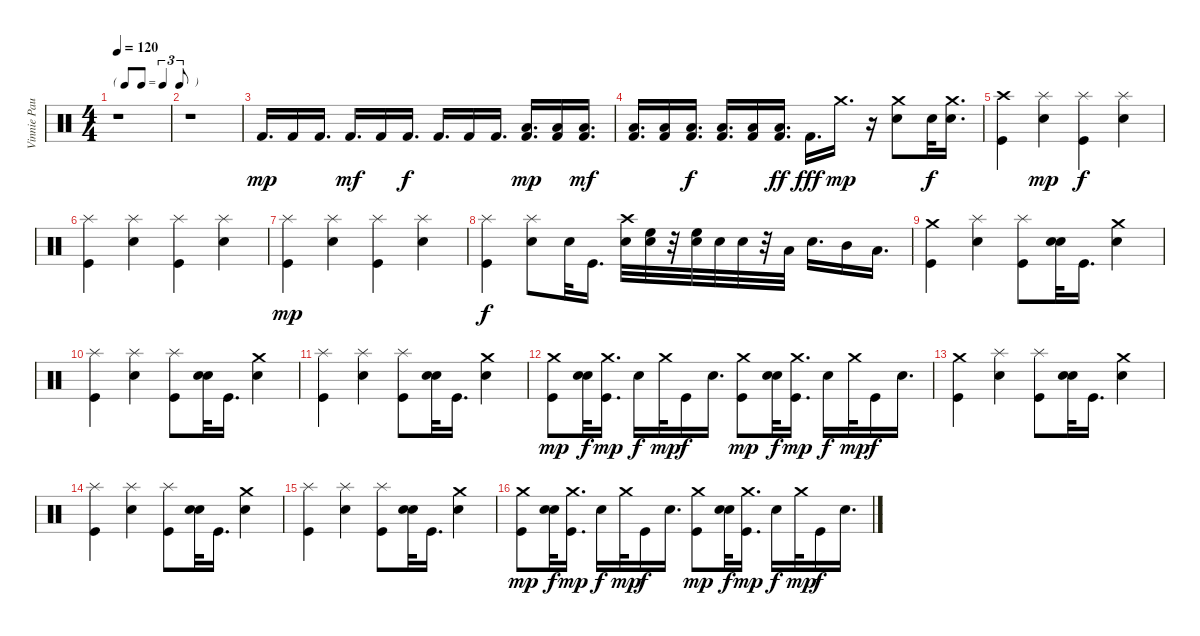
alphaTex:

\track ("Vinnie Paul" "Vinnie Pau") {instrument percussion}
\staff {score}
\articulation defaults
\ts (4 4)
\tf triplet8th
\tempo 120
\clef neutral
\ks c
r.1{dy mp} |
r.1 |
"Kick (hit) 2".16{d} "Kick (hit) 2".16 "Kick (hit) 2".16{d} "Kick (hit) 2".16{d dy mf} "Kick (hit) 2".16 "Kick (hit) 2".16{d dy f} "Kick (hit) 2".16{d} "Kick (hit) 2".16 "Kick (hit) 2".16{d} ("Low Floor Tom (hit)" "Kick (hit) 2").16{d dy mp} ("Low Floor Tom (hit)" "Kick (hit) 2").16 ("Low Floor Tom (hit)" "Kick (hit) 2").16{d dy mf} |
("Low Floor Tom (hit)" "Kick (hit) 2").16{d} ("Low Floor Tom (hit)" "Kick (hit) 2").16 ("Low Floor Tom (hit)" "Kick (hit) 2").16{d dy f} ("Low Floor Tom (hit)" "Kick (hit) 2").16{d} ("Low Floor Tom (hit)" "Kick (hit) 2").16 ("Low Floor Tom (hit)" "Kick (hit) 2").16{d dy ff} "Kick (hit) 2".16{d dy fff} "Crash medium (hit)".16{d dy mp} r.16 ("Crash medium (hit)" "Snare (hit) 2").8 "Snare (hit)".32{dy f} ("Snare (hit) 2" "Crash medium (hit)").16{d} |
("Kick (hit)" "Crash high (hit)").4 ("Splash (hit)" "Snare (hit) 2").4{dy mp} ("Kick (hit)" "Splash (hit)").4{dy f} ("Snare (hit) 2" "Splash (hit)").4 |
("Kick (hit)" "Splash (hit)").4 ("Snare (hit) 2" "Splash (hit)").4 ("Kick (hit)" "Splash (hit)").4 ("Snare (hit) 2" "Splash (hit)").4 |
("Splash (hit)" "Kick (hit)").4{dy mp} ("Splash (hit)" "Snare (hit) 2").4 ("Splash (hit)" "Kick (hit)").4 ("Splash (hit)" "Snare (hit) 2").4 |
("Kick (hit)" "Splash (hit)").4{dy f} ("Snare (hit) 2" "Splash (hit)").8 "Snare (hit)".32 "Kick (hit)".16{d} ("Snare (hit) 2" "Crash high (hit)").32 ("Snare (hit) 2" "High Floor Tom (hit)").32 r.32 ("Snare (hit) 2" "High Floor Tom (hit)").32 "Snare (hit) 2".32 "Snare (hit) 2".32 r.32 "Low Tom (hit)".32 "Snare (hit) 2".16{d} "Mid Tom (hit)".16 "Low Tom (hit)".16{d} |
("Kick (hit)" "Crash medium (hit)").4 ("Snare (hit) 2" "Splash (hit)").4 ("Kick (hit)" "Splash (hit)").8 ("Snare (hit)" "Snare (hit)").32 "Kick (hit)".16{d} ("Snare (hit) 2" "Crash medium (hit)").4 |
("Kick (hit)" "Splash (hit)").4 ("Snare (hit) 2" "Splash (hit)").4 ("Kick (hit)" "Splash (hit)").8 ("Snare (hit)" "Snare (hit)").32 "Kick (hit)".16{d} ("Snare (hit) 2" "Crash medium (hit)").4 |
("Kick (hit)" "Splash (hit)").4 ("Snare (hit) 2" "Splash (hit)").4 ("Kick (hit)" "Splash (hit)").8 ("Snare (hit)" "Snare (hit)").32 "Kick (hit)".16{d} ("Snare (hit) 2" "Crash medium (hit)").4 |
("Crash medium (hit)" "Kick (hit)").8{dy mp} ("Snare (hit)" "Snare (hit)").32{dy f} ("Crash medium (hit)" "Kick (hit)").16{d dy mp} "Snare (hit) 2".16{dy f} "Crash medium (hit)".32{dy mp} "Kick (hit)".16{dy f} "Snare (hit) 2".16{d} ("Crash medium (hit)" "Kick (hit)").8{dy mp} ("Snare (hit)" "Snare (hit)").32{dy f} ("Crash medium (hit)" "Kick (hit)").16{d dy mp} "Snare (hit) 2".16{dy f} "Crash medium (hit)".32{dy mp} "Kick (hit)".16{dy f} "Snare (hit) 2".16{d} |
("Kick (hit)" "Crash medium (hit)").4 ("Snare (hit) 2" "Splash (hit)").4 ("Kick (hit)" "Splash (hit)").8 ("Snare (hit)" "Snare (hit)").32 "Kick (hit)".16{d} ("Snare (hit) 2" "Crash medium (hit)").4 |
("Kick (hit)" "Splash (hit)").4 ("Snare (hit) 2" "Splash (hit)").4 ("Kick (hit)" "Splash (hit)").8 ("Snare (hit)" "Snare (hit)").32 "Kick (hit)".16{d} ("Snare (hit) 2" "Crash medium (hit)").4 |
("Kick (hit)" "Splash (hit)").4 ("Snare (hit) 2" "Splash (hit)").4 ("Kick (hit)" "Splash (hit)").8 ("Snare (hit)" "Snare (hit)").32 "Kick (hit)".16{d} ("Snare (hit) 2" "Crash medium (hit)").4 |
("Crash medium (hit)" "Kick (hit)").8{dy mp} ("Snare (hit)" "Snare (hit)").32{dy f} ("Crash medium (hit)" "Kick (hit)").16{d dy mp} "Snare (hit) 2".16{dy f} "Crash medium (hit)".32{dy mp} "Kick (hit)".16{dy f} "Snare (hit) 2".16{d} ("Crash medium (hit)" "Kick (hit)").8{dy mp} ("Snare (hit)" "Snare (hit)").32{dy f} ("Crash medium (hit)" "Kick (hit)").16{d dy mp} "Snare (hit) 2".16{dy f} "Crash medium (hit)".32{dy mp} "Kick (hit)".16{dy f} "Snare (hit) 2".16{d}
